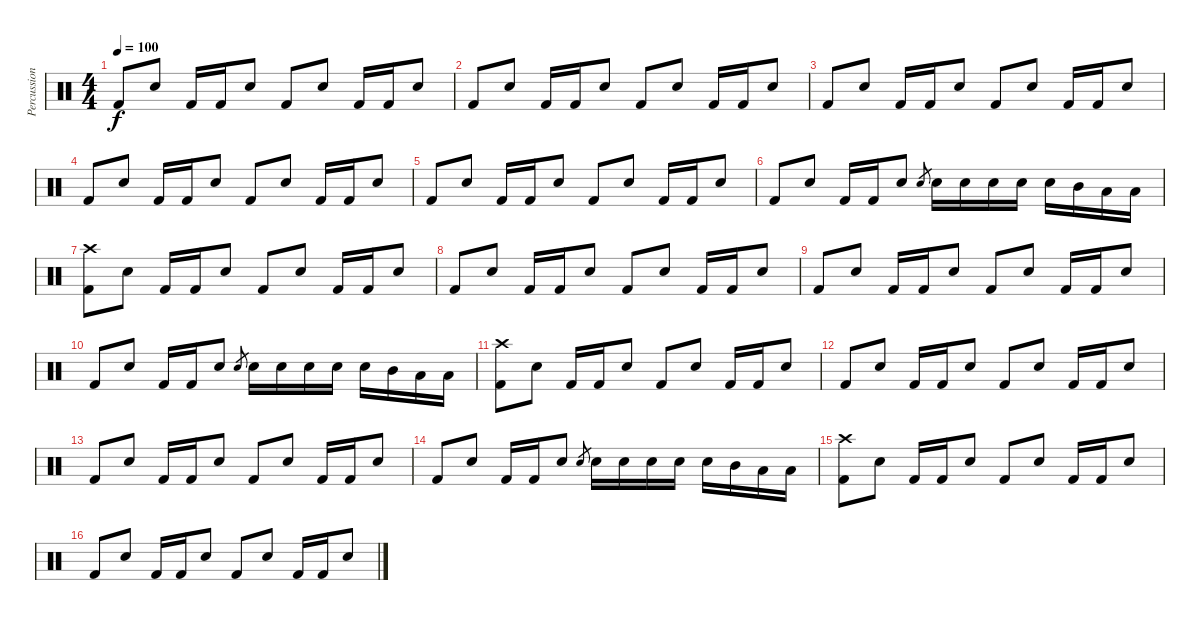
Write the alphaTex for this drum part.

\track ("Percussions" "Percussion") {instrument percussion}
\staff {score}
\articulation defaults
\ts (4 4)
\tempo 100
\clef neutral
\ks c "Kick (hit) 2".8{dy f} "Snare (hit) 2".8 "Kick (hit) 2".16 "Kick (hit) 2".16 "Snare (hit) 2".8 "Kick (hit) 2".8 "Snare (hit) 2".8 "Kick (hit) 2".16 "Kick (hit) 2".16 "Snare (hit) 2".8
|
"Kick (hit) 2".8 "Snare (hit) 2".8 "Kick (hit) 2".16 "Kick (hit) 2".16 "Snare (hit) 2".8 "Kick (hit) 2".8 "Snare (hit) 2".8 "Kick (hit) 2".16 "Kick (hit) 2".16 "Snare (hit) 2".8 |
"Kick (hit) 2".8 "Snare (hit) 2".8 "Kick (hit) 2".16 "Kick (hit) 2".16 "Snare (hit) 2".8 "Kick (hit) 2".8 "Snare (hit) 2".8 "Kick (hit) 2".16 "Kick (hit) 2".16 "Snare (hit) 2".8 |
"Kick (hit) 2".8 "Snare (hit) 2".8 "Kick (hit) 2".16 "Kick (hit) 2".16 "Snare (hit) 2".8 "Kick (hit) 2".8 "Snare (hit) 2".8 "Kick (hit) 2".16 "Kick (hit) 2".16 "Snare (hit) 2".8 |
"Kick (hit) 2".8 "Snare (hit) 2".8 "Kick (hit) 2".16 "Kick (hit) 2".16 "Snare (hit) 2".8 "Kick (hit) 2".8 "Snare (hit) 2".8 "Kick (hit) 2".16 "Kick (hit) 2".16 "Snare (hit) 2".8 |
"Kick (hit) 2".8 "Snare (hit) 2".8 "Kick (hit) 2".16 "Kick (hit) 2".16 "Snare (hit) 2".8 "Snare (hit) 2".8{gr} "Snare (hit) 2".16 "Snare (hit) 2".16 "Snare (hit) 2".16 "Snare (hit) 2".16 "Snare (hit) 2".16 "Mid Tom (hit)".16 "Low Tom (hit)".16 "Low Floor Tom (hit)".16 |
("Crash high (hit)" "Kick (hit) 2").8 "Snare (hit) 2".8 "Kick (hit) 2".16 "Kick (hit) 2".16 "Snare (hit) 2".8 "Kick (hit) 2".8 "Snare (hit) 2".8 "Kick (hit) 2".16 "Kick (hit) 2".16 "Snare (hit) 2".8 |
"Kick (hit) 2".8 "Snare (hit) 2".8 "Kick (hit) 2".16 "Kick (hit) 2".16 "Snare (hit) 2".8 "Kick (hit) 2".8 "Snare (hit) 2".8 "Kick (hit) 2".16 "Kick (hit) 2".16 "Snare (hit) 2".8 |
"Kick (hit) 2".8 "Snare (hit) 2".8 "Kick (hit) 2".16 "Kick (hit) 2".16 "Snare (hit) 2".8 "Kick (hit) 2".8 "Snare (hit) 2".8 "Kick (hit) 2".16 "Kick (hit) 2".16 "Snare (hit) 2".8 |
"Kick (hit) 2".8 "Snare (hit) 2".8 "Kick (hit) 2".16 "Kick (hit) 2".16 "Snare (hit) 2".8 "Snare (hit) 2".8{gr} "Snare (hit) 2".16 "Snare (hit) 2".16 "Snare (hit) 2".16 "Snare (hit) 2".16 "Snare (hit) 2".16 "Mid Tom (hit)".16 "Low Tom (hit)".16 "Low Floor Tom (hit)".16 |
("Crash high (hit)" "Kick (hit) 2").8 "Snare (hit) 2".8 "Kick (hit) 2".16 "Kick (hit) 2".16 "Snare (hit) 2".8 "Kick (hit) 2".8 "Snare (hit) 2".8 "Kick (hit) 2".16 "Kick (hit) 2".16 "Snare (hit) 2".8 |
"Kick (hit) 2".8 "Snare (hit) 2".8 "Kick (hit) 2".16 "Kick (hit) 2".16 "Snare (hit) 2".8 "Kick (hit) 2".8 "Snare (hit) 2".8 "Kick (hit) 2".16 "Kick (hit) 2".16 "Snare (hit) 2".8 |
"Kick (hit) 2".8 "Snare (hit) 2".8 "Kick (hit) 2".16 "Kick (hit) 2".16 "Snare (hit) 2".8 "Kick (hit) 2".8 "Snare (hit) 2".8 "Kick (hit) 2".16 "Kick (hit) 2".16 "Snare (hit) 2".8 |
"Kick (hit) 2".8 "Snare (hit) 2".8 "Kick (hit) 2".16 "Kick (hit) 2".16 "Snare (hit) 2".8 "Snare (hit) 2".8{gr} "Snare (hit) 2".16 "Snare (hit) 2".16 "Snare (hit) 2".16 "Snare (hit) 2".16 "Snare (hit) 2".16 "Mid Tom (hit)".16 "Low Tom (hit)".16 "Low Floor Tom (hit)".16 |
("Crash high (hit)" "Kick (hit) 2").8 "Snare (hit) 2".8 "Kick (hit) 2".16 "Kick (hit) 2".16 "Snare (hit) 2".8 "Kick (hit) 2".8 "Snare (hit) 2".8 "Kick (hit) 2".16 "Kick (hit) 2".16 "Snare (hit) 2".8 |
"Kick (hit) 2".8 "Snare (hit) 2".8 "Kick (hit) 2".16 "Kick (hit) 2".16 "Snare (hit) 2".8 "Kick (hit) 2".8 "Snare (hit) 2".8 "Kick (hit) 2".16 "Kick (hit) 2".16 "Snare (hit) 2".8
